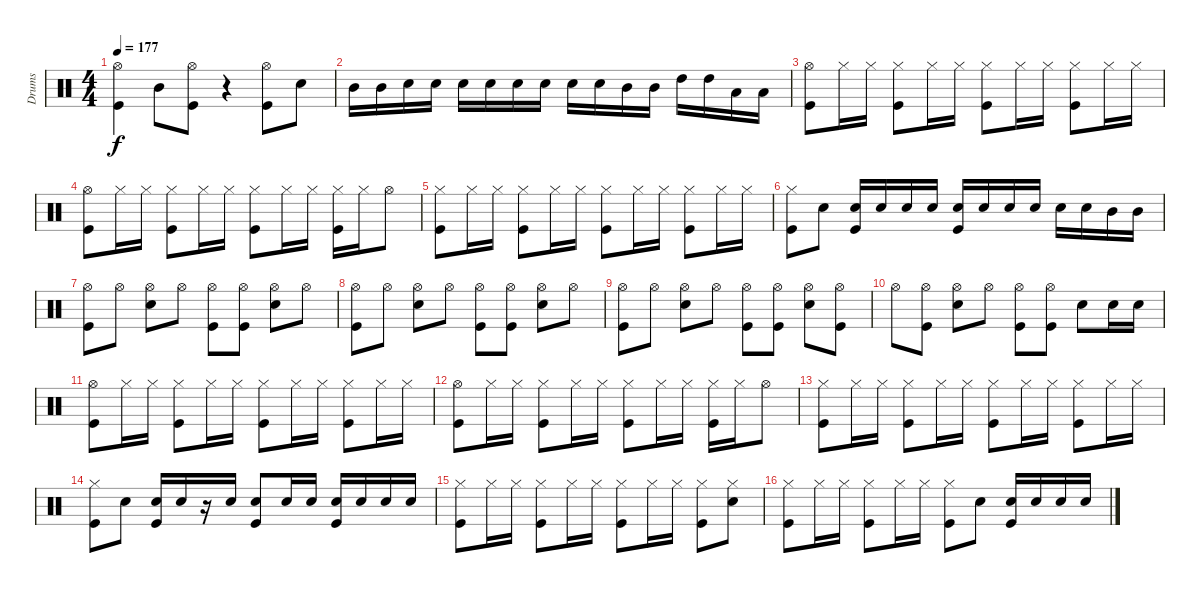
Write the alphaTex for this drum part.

\track ("Drums" "Drums") {instrument percussion}
\staff {score}
\articulation defaults
\ts (4 4)
\tempo 177
\clef neutral
\ks c
("Hi-Hat (open)" "Kick (hit)").4{dy f} "Mid Tom (hit)".8 ("Hi-Hat (open)" "Kick (hit)").8 r.4 ("Hi-Hat (open)" "Kick (hit)").8 "Snare (hit) 2".8 |
"Mid Tom (hit)".16 "Mid Tom (hit)".16 "Snare (hit) 2".16 "Snare (hit) 2".16 "Snare (hit) 2".16 "Snare (hit) 2".16 "Snare (hit) 2".16 "Snare (hit) 2".16 "Snare (hit) 2".16 "Snare (hit) 2".16 "Mid Tom (hit)".16 "Mid Tom (hit)".16 "High Tom (hit)".16 "High Tom (hit)".16 "Low Tom (hit)".16 "Low Tom (hit)".16 |
("Hi-Hat (open)" "Kick (hit)").8 "Hi-Hat (closed)".16 "Hi-Hat (closed)".16 ("Hi-Hat (closed)" "Kick (hit)").8 "Hi-Hat (closed)".16 "Hi-Hat (closed)".16 ("Hi-Hat (closed)" "Kick (hit)").8 "Hi-Hat (closed)".16 "Hi-Hat (closed)".16 ("Hi-Hat (closed)" "Kick (hit)").8 "Hi-Hat (closed)".16 "Hi-Hat (closed)".16 |
("Hi-Hat (open)" "Kick (hit)").8 "Hi-Hat (closed)".16 "Hi-Hat (closed)".16 ("Hi-Hat (closed)" "Kick (hit)").8 "Hi-Hat (closed)".16 "Hi-Hat (closed)".16 ("Hi-Hat (closed)" "Kick (hit)").8 "Hi-Hat (closed)".16 "Hi-Hat (closed)".16 ("Hi-Hat (closed)" "Kick (hit)").16 "Hi-Hat (closed)".16 "Hi-Hat (open)".8 |
("Hi-Hat (closed)" "Kick (hit)").8 "Hi-Hat (closed)".16 "Hi-Hat (closed)".16 ("Hi-Hat (closed)" "Kick (hit)").8 "Hi-Hat (closed)".16 "Hi-Hat (closed)".16 ("Hi-Hat (closed)" "Kick (hit)").8 "Hi-Hat (closed)".16 "Hi-Hat (closed)".16 ("Hi-Hat (closed)" "Kick (hit)").8 "Hi-Hat (closed)".16 "Hi-Hat (closed)".16 |
("Hi-Hat (closed)" "Kick (hit)").8 "Snare (hit) 2".8 ("Snare (hit) 2" "Kick (hit)").16 "Snare (hit) 2".16 "Snare (hit) 2".16 "Snare (hit) 2".16 ("Snare (hit) 2" "Kick (hit)").16 "Snare (hit) 2".16 "Snare (hit) 2".16 "Snare (hit) 2".16 "Snare (hit) 2".16 "Snare (hit) 2".16 "Mid Tom (hit)".16 "Mid Tom (hit)".16 |
("Hi-Hat (open)" "Kick (hit)").8 "Hi-Hat (open)".8 ("Hi-Hat (open)" "Snare (hit) 2").8 "Hi-Hat (open)".8 ("Hi-Hat (open)" "Kick (hit)").8 ("Hi-Hat (open)" "Kick (hit)").8 ("Hi-Hat (open)" "Snare (hit) 2").8 "Hi-Hat (open)".8 |
("Hi-Hat (open)" "Kick (hit)").8 "Hi-Hat (open)".8 ("Hi-Hat (open)" "Snare (hit) 2").8 "Hi-Hat (open)".8 ("Hi-Hat (open)" "Kick (hit)").8 ("Hi-Hat (open)" "Kick (hit)").8 ("Hi-Hat (open)" "Snare (hit) 2").8 "Hi-Hat (open)".8 |
("Hi-Hat (open)" "Kick (hit)").8 "Hi-Hat (open)".8 ("Hi-Hat (open)" "Snare (hit) 2").8 "Hi-Hat (open)".8 ("Hi-Hat (open)" "Kick (hit)").8 ("Hi-Hat (open)" "Kick (hit)").8 ("Hi-Hat (open)" "Snare (hit) 2").8 ("Hi-Hat (open)" "Kick (hit)").8 |
"Hi-Hat (open)".8 ("Hi-Hat (open)" "Kick (hit)").8 ("Hi-Hat (open)" "Snare (hit) 2").8 "Hi-Hat (open)".8 ("Hi-Hat (open)" "Kick (hit)").8 ("Hi-Hat (open)" "Kick (hit)").8 "Snare (hit) 2".8 "Snare (hit) 2".16 "Snare (hit) 2".16 |
("Hi-Hat (open)" "Kick (hit)").8 "Hi-Hat (closed)".16 "Hi-Hat (closed)".16 ("Hi-Hat (closed)" "Kick (hit)").8 "Hi-Hat (closed)".16 "Hi-Hat (closed)".16 ("Hi-Hat (closed)" "Kick (hit)").8 "Hi-Hat (closed)".16 "Hi-Hat (closed)".16 ("Hi-Hat (closed)" "Kick (hit)").8 "Hi-Hat (closed)".16 "Hi-Hat (closed)".16 |
("Hi-Hat (open)" "Kick (hit)").8 "Hi-Hat (closed)".16 "Hi-Hat (closed)".16 ("Hi-Hat (closed)" "Kick (hit)").8 "Hi-Hat (closed)".16 "Hi-Hat (closed)".16 ("Hi-Hat (closed)" "Kick (hit)").8 "Hi-Hat (closed)".16 "Hi-Hat (closed)".16 ("Hi-Hat (closed)" "Kick (hit)").16 "Hi-Hat (closed)".16 "Hi-Hat (open)".8 |
("Hi-Hat (closed)" "Kick (hit)").8 "Hi-Hat (closed)".16 "Hi-Hat (closed)".16 ("Hi-Hat (closed)" "Kick (hit)").8 "Hi-Hat (closed)".16 "Hi-Hat (closed)".16 ("Hi-Hat (closed)" "Kick (hit)").8 "Hi-Hat (closed)".16 "Hi-Hat (closed)".16 ("Hi-Hat (closed)" "Kick (hit)").8 "Hi-Hat (closed)".16 "Hi-Hat (closed)".16 |
("Hi-Hat (closed)" "Kick (hit)").8 "Snare (hit) 2".8 ("Snare (hit) 2" "Kick (hit)").16 "Snare (hit) 2".16 r.16 "Snare (hit) 2".16 ("Snare (hit) 2" "Kick (hit)").8 "Snare (hit) 2".16 "Snare (hit) 2".16 ("Snare (hit) 2" "Kick (hit)").16 "Snare (hit) 2".16 "Snare (hit) 2".16 "Snare (hit) 2".16 |
("Hi-Hat (closed)" "Kick (hit)").8 "Hi-Hat (closed)".16 "Hi-Hat (closed)".16 ("Hi-Hat (closed)" "Kick (hit)").8 "Hi-Hat (closed)".16 "Hi-Hat (closed)".16 ("Hi-Hat (closed)" "Kick (hit)").8 "Hi-Hat (closed)".16 "Hi-Hat (closed)".16 ("Hi-Hat (closed)" "Kick (hit)").8 ("Hi-Hat (closed)" "Snare (hit) 2").8 |
("Hi-Hat (closed)" "Kick (hit)").8 "Hi-Hat (closed)".16 "Hi-Hat (closed)".16 ("Hi-Hat (closed)" "Kick (hit)").8 "Hi-Hat (closed)".16 "Hi-Hat (closed)".16 ("Hi-Hat (closed)" "Kick (hit)").8 "Snare (hit) 2".8 ("Snare (hit) 2" "Kick (hit)").16 "Snare (hit) 2".16 "Snare (hit) 2".16 "Snare (hit) 2".16
